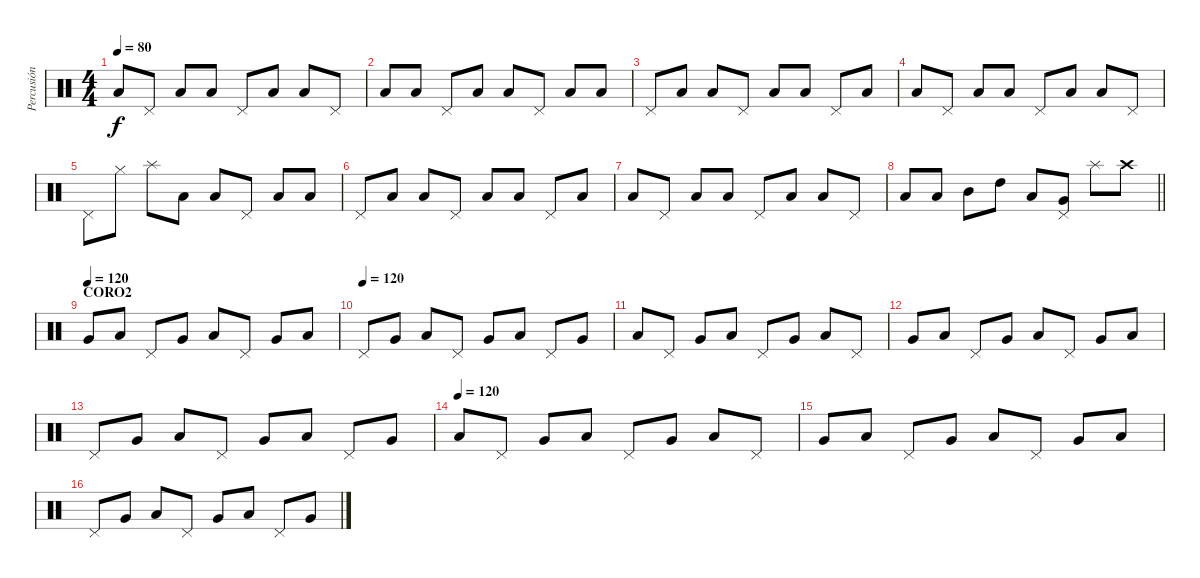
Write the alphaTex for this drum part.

\track ("Percusión" "Percusión") {instrument percussion}
\staff {score}
\articulation defaults
\ts (4 4)
\tempo 80
\clef neutral
\ks c "Low Floor Tom (hit)".8{dy f} "Pedal Hi-Hat (hit)".8 "Low Floor Tom (hit)".8 "Low Floor Tom (hit)".8 "Pedal Hi-Hat (hit)".8 "Low Floor Tom (hit)".8 "Low Floor Tom (hit)".8 "Pedal Hi-Hat (hit)".8
|
"Low Floor Tom (hit)".8 "Low Floor Tom (hit)".8 "Pedal Hi-Hat (hit)".8 "Low Floor Tom (hit)".8 "Low Floor Tom (hit)".8 "Pedal Hi-Hat (hit)".8 "Low Floor Tom (hit)".8 "Low Floor Tom (hit)".8 |
"Pedal Hi-Hat (hit)".8 "Low Floor Tom (hit)".8 "Low Floor Tom (hit)".8 "Pedal Hi-Hat (hit)".8 "Low Floor Tom (hit)".8 "Low Floor Tom (hit)".8 "Pedal Hi-Hat (hit)".8 "Low Floor Tom (hit)".8 |
"Low Floor Tom (hit)".8 "Pedal Hi-Hat (hit)".8 "Low Floor Tom (hit)".8 "Low Floor Tom (hit)".8 "Pedal Hi-Hat (hit)".8 "Low Floor Tom (hit)".8 "Low Floor Tom (hit)".8 "Pedal Hi-Hat (hit)".8 |
"Pedal Hi-Hat (hit)".8 "Hi-Hat (closed)".8 "Splash (hit)".8 "Low Floor Tom (hit)".8 "Low Floor Tom (hit)".8 "Pedal Hi-Hat (hit)".8 "Low Floor Tom (hit)".8 "Low Floor Tom (hit)".8 |
"Pedal Hi-Hat (hit)".8 "Low Floor Tom (hit)".8 "Low Floor Tom (hit)".8 "Pedal Hi-Hat (hit)".8 "Low Floor Tom (hit)".8 "Low Floor Tom (hit)".8 "Pedal Hi-Hat (hit)".8 "Low Floor Tom (hit)".8 |
"Low Floor Tom (hit)".8 "Pedal Hi-Hat (hit)".8 "Low Floor Tom (hit)".8 "Low Floor Tom (hit)".8 "Pedal Hi-Hat (hit)".8 "Low Floor Tom (hit)".8 "Low Floor Tom (hit)".8 "Pedal Hi-Hat (hit)".8 |
\barLineRight lightlight "Low Floor Tom (hit)".8 "Low Floor Tom (hit)".8 "Mid Tom (hit)".8 "High Tom (hit)".8 "Low Floor Tom (hit)".8
("Pedal Hi-Hat (hit)" "Very Low Tom (hit)").8 "Splash (hit)".8 "Crash high (hit)".8 |
\section ("" "CORO2")
\tempo (120)
"Very Low Tom (hit)".8 "Low Floor Tom (hit)".8 "Pedal Hi-Hat (hit)".8 "Very Low Tom (hit)".8 "Low Floor Tom (hit)".8 "Pedal Hi-Hat (hit)".8 "Very Low Tom (hit)".8 "Low Floor Tom (hit)".8 |
\tempo (120)
"Pedal Hi-Hat (hit)".8 "Very Low Tom (hit)".8 "Low Floor Tom (hit)".8 "Pedal Hi-Hat (hit)".8 "Very Low Tom (hit)".8 "Low Floor Tom (hit)".8 "Pedal Hi-Hat (hit)".8 "Very Low Tom (hit)".8 |
"Low Floor Tom (hit)".8 "Pedal Hi-Hat (hit)".8 "Very Low Tom (hit)".8 "Low Floor Tom (hit)".8 "Pedal Hi-Hat (hit)".8 "Very Low Tom (hit)".8 "Low Floor Tom (hit)".8 "Pedal Hi-Hat (hit)".8 |
"Very Low Tom (hit)".8 "Low Floor Tom (hit)".8 "Pedal Hi-Hat (hit)".8 "Very Low Tom (hit)".8 "Low Floor Tom (hit)".8 "Pedal Hi-Hat (hit)".8 "Very Low Tom (hit)".8 "Low Floor Tom (hit)".8 |
"Pedal Hi-Hat (hit)".8 "Very Low Tom (hit)".8 "Low Floor Tom (hit)".8 "Pedal Hi-Hat (hit)".8 "Very Low Tom (hit)".8 "Low Floor Tom (hit)".8 "Pedal Hi-Hat (hit)".8 "Very Low Tom (hit)".8 |
\tempo (120)
"Low Floor Tom (hit)".8 "Pedal Hi-Hat (hit)".8 "Very Low Tom (hit)".8 "Low Floor Tom (hit)".8 "Pedal Hi-Hat (hit)".8 "Very Low Tom (hit)".8 "Low Floor Tom (hit)".8 "Pedal Hi-Hat (hit)".8 |
"Very Low Tom (hit)".8 "Low Floor Tom (hit)".8 "Pedal Hi-Hat (hit)".8 "Very Low Tom (hit)".8 "Low Floor Tom (hit)".8 "Pedal Hi-Hat (hit)".8 "Very Low Tom (hit)".8 "Low Floor Tom (hit)".8 |
"Pedal Hi-Hat (hit)".8 "Very Low Tom (hit)".8 "Low Floor Tom (hit)".8 "Pedal Hi-Hat (hit)".8 "Very Low Tom (hit)".8 "Low Floor Tom (hit)".8 "Pedal Hi-Hat (hit)".8 "Very Low Tom (hit)".8
